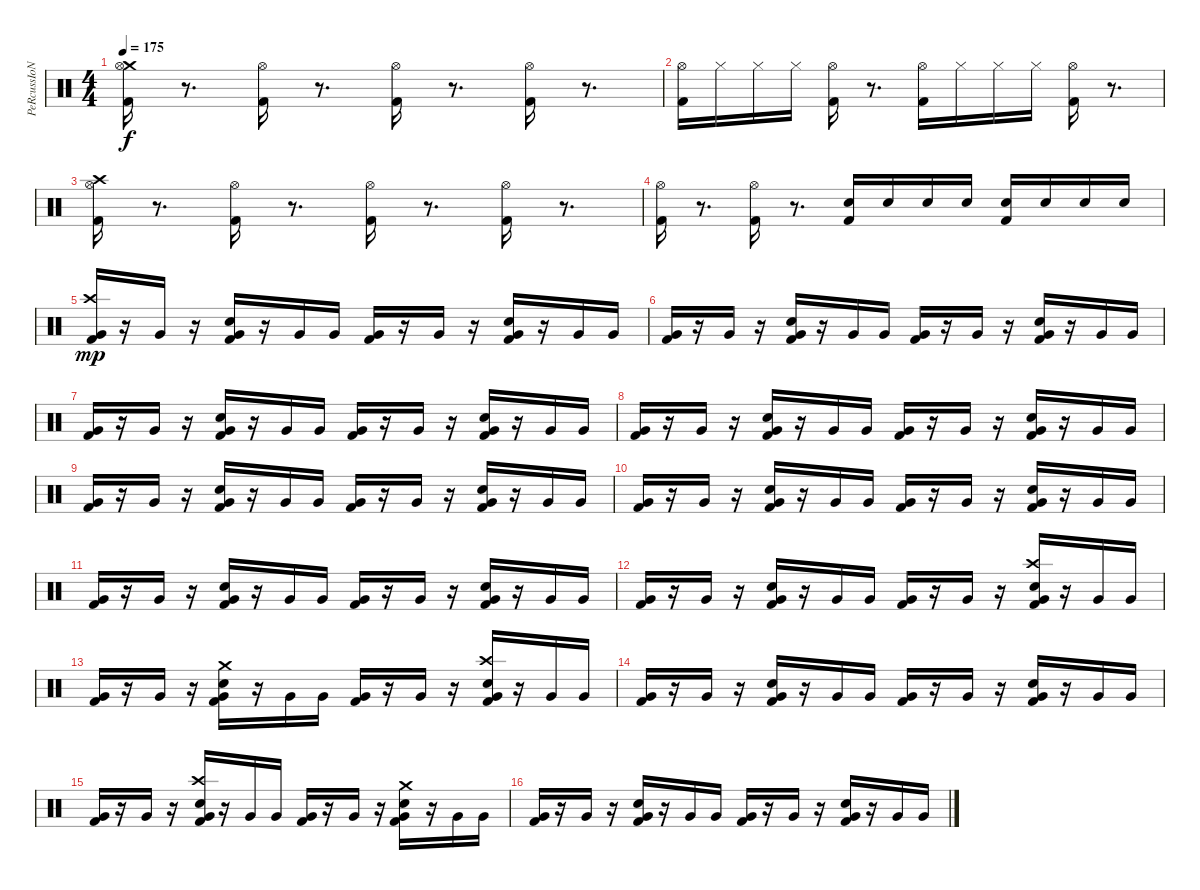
\track ("PeRcussIoNs" "PeRcussIoN") {instrument percussion}
\staff {score}
\articulation defaults
\ts (4 4)
\tempo 175
\clef neutral
\ks c
("Crash medium (hit)" "Kick (hit) 2" "Hi-Hat (open)").16{dy f} r.8{d} ("Kick (hit) 2" "Hi-Hat (open)").16 r.8{d} ("Kick (hit) 2" "Hi-Hat (open)").16 r.8{d} ("Kick (hit) 2" "Hi-Hat (open)").16 r.8{d} |
("Kick (hit) 2" "Hi-Hat (open)").16 "Hi-Hat (closed)".16 "Hi-Hat (closed)".16 "Hi-Hat (closed)".16 ("Kick (hit) 2" "Hi-Hat (open)").16 r.8{d} ("Hi-Hat (open)" "Kick (hit) 2").16 "Hi-Hat (closed)".16 "Hi-Hat (closed)".16 "Hi-Hat (closed)".16 ("Hi-Hat (open)" "Kick (hit) 2").16 r.8{d} |
("Crash high (hit)" "Kick (hit) 2" "Hi-Hat (open)").16 r.8{d} ("Kick (hit) 2" "Hi-Hat (open)").16 r.8{d} ("Kick (hit) 2" "Hi-Hat (open)").16 r.8{d} ("Kick (hit) 2" "Hi-Hat (open)").16 r.8{d} |
("Kick (hit) 2" "Hi-Hat (open)").16 r.8{d} ("Kick (hit) 2" "Hi-Hat (open)").16 r.8{d} ("Electric Snare (hit)" "Kick (hit) 2").16 "Electric Snare (hit)".16 "Electric Snare (hit)".16 "Electric Snare (hit)".16 ("Electric Snare (hit)" "Kick (hit) 2").16 "Electric Snare (hit)".16 "Electric Snare (hit)".16 "Electric Snare (hit)".16 |
("Crash high (hit)" "Very Low Tom (hit)" "Kick (hit) 2").16{dy mp} r.16 "Very Low Tom (hit)".16 r.16 ("Very Low Tom (hit)" "Electric Snare (hit)" "Kick (hit) 2").16 r.16 "Very Low Tom (hit)".16 "Very Low Tom (hit)".16 ("Very Low Tom (hit)" "Kick (hit) 2").16 r.16 "Very Low Tom (hit)".16 r.16 ("Very Low Tom (hit)" "Electric Snare (hit)" "Kick (hit) 2").16 r.16 "Very Low Tom (hit)".16 "Very Low Tom (hit)".16 |
("Very Low Tom (hit)" "Kick (hit) 2").16 r.16 "Very Low Tom (hit)".16 r.16 ("Very Low Tom (hit)" "Electric Snare (hit)" "Kick (hit) 2").16 r.16 "Very Low Tom (hit)".16 "Very Low Tom (hit)".16 ("Very Low Tom (hit)" "Kick (hit) 2").16 r.16 "Very Low Tom (hit)".16 r.16 ("Very Low Tom (hit)" "Electric Snare (hit)" "Kick (hit) 2").16 r.16 "Very Low Tom (hit)".16 "Very Low Tom (hit)".16 |
("Very Low Tom (hit)" "Kick (hit) 2").16 r.16 "Very Low Tom (hit)".16 r.16 ("Very Low Tom (hit)" "Electric Snare (hit)" "Kick (hit) 2").16 r.16 "Very Low Tom (hit)".16 "Very Low Tom (hit)".16 ("Very Low Tom (hit)" "Kick (hit) 2").16 r.16 "Very Low Tom (hit)".16 r.16 ("Very Low Tom (hit)" "Electric Snare (hit)" "Kick (hit) 2").16 r.16 "Very Low Tom (hit)".16 "Very Low Tom (hit)".16 |
("Very Low Tom (hit)" "Kick (hit) 2").16 r.16 "Very Low Tom (hit)".16 r.16 ("Very Low Tom (hit)" "Electric Snare (hit)" "Kick (hit) 2").16 r.16 "Very Low Tom (hit)".16 "Very Low Tom (hit)".16 ("Very Low Tom (hit)" "Kick (hit) 2").16 r.16 "Very Low Tom (hit)".16 r.16 ("Very Low Tom (hit)" "Electric Snare (hit)" "Kick (hit) 2").16 r.16 "Very Low Tom (hit)".16 "Very Low Tom (hit)".16 |
("Very Low Tom (hit)" "Kick (hit) 2").16 r.16 "Very Low Tom (hit)".16 r.16 ("Very Low Tom (hit)" "Electric Snare (hit)" "Kick (hit) 2").16 r.16 "Very Low Tom (hit)".16 "Very Low Tom (hit)".16 ("Very Low Tom (hit)" "Kick (hit) 2").16 r.16 "Very Low Tom (hit)".16 r.16 ("Very Low Tom (hit)" "Electric Snare (hit)" "Kick (hit) 2").16 r.16 "Very Low Tom (hit)".16 "Very Low Tom (hit)".16 |
("Very Low Tom (hit)" "Kick (hit) 2").16 r.16 "Very Low Tom (hit)".16 r.16 ("Very Low Tom (hit)" "Electric Snare (hit)" "Kick (hit) 2").16 r.16 "Very Low Tom (hit)".16 "Very Low Tom (hit)".16 ("Very Low Tom (hit)" "Kick (hit) 2").16 r.16 "Very Low Tom (hit)".16 r.16 ("Very Low Tom (hit)" "Electric Snare (hit)" "Kick (hit) 2").16 r.16 "Very Low Tom (hit)".16 "Very Low Tom (hit)".16 |
("Very Low Tom (hit)" "Kick (hit) 2").16 r.16 "Very Low Tom (hit)".16 r.16 ("Very Low Tom (hit)" "Electric Snare (hit)" "Kick (hit) 2").16 r.16 "Very Low Tom (hit)".16 "Very Low Tom (hit)".16 ("Very Low Tom (hit)" "Kick (hit) 2").16 r.16 "Very Low Tom (hit)".16 r.16 ("Very Low Tom (hit)" "Electric Snare (hit)" "Kick (hit) 2").16 r.16 "Very Low Tom (hit)".16 "Very Low Tom (hit)".16 |
("Very Low Tom (hit)" "Kick (hit) 2").16 r.16 "Very Low Tom (hit)".16 r.16 ("Very Low Tom (hit)" "Electric Snare (hit)" "Kick (hit) 2").16 r.16 "Very Low Tom (hit)".16 "Very Low Tom (hit)".16 ("Very Low Tom (hit)" "Kick (hit) 2").16 r.16 "Very Low Tom (hit)".16 r.16 ("Crash high (hit)" "Very Low Tom (hit)" "Electric Snare (hit)" "Kick (hit) 2").16 r.16 "Very Low Tom (hit)".16 "Very Low Tom (hit)".16 |
("Kick (hit) 2" "Very Low Tom (hit)").16 r.16 "Very Low Tom (hit)".16 r.16 ("Crash medium (hit)" "Electric Snare (hit)" "Kick (hit) 2" "Very Low Tom (hit)").16 r.16 "Very Low Tom (hit)".16 "Very Low Tom (hit)".16 ("Kick (hit) 2" "Very Low Tom (hit)").16 r.16 "Very Low Tom (hit)".16 r.16 ("Crash high (hit)" "Electric Snare (hit)" "Kick (hit) 2" "Very Low Tom (hit)").16 r.16 "Very Low Tom (hit)".16 "Very Low Tom (hit)".16 |
("Kick (hit) 2" "Very Low Tom (hit)").16 r.16 "Very Low Tom (hit)".16 r.16 ("Electric Snare (hit)" "Kick (hit) 2" "Very Low Tom (hit)").16 r.16 "Very Low Tom (hit)".16 "Very Low Tom (hit)".16 ("Kick (hit) 2" "Very Low Tom (hit)").16 r.16 "Very Low Tom (hit)".16 r.16 ("Electric Snare (hit)" "Kick (hit) 2" "Very Low Tom (hit)").16 r.16 "Very Low Tom (hit)".16 "Very Low Tom (hit)".16 |
("Kick (hit) 2" "Very Low Tom (hit)").16 r.16 "Very Low Tom (hit)".16 r.16 ("Crash high (hit)" "Electric Snare (hit)" "Kick (hit) 2" "Very Low Tom (hit)").16 r.16 "Very Low Tom (hit)".16 "Very Low Tom (hit)".16 ("Kick (hit) 2" "Very Low Tom (hit)").16 r.16 "Very Low Tom (hit)".16 r.16 ("Crash medium (hit)" "Electric Snare (hit)" "Kick (hit) 2" "Very Low Tom (hit)").16 r.16 "Very Low Tom (hit)".16 "Very Low Tom (hit)".16 |
("Kick (hit) 2" "Very Low Tom (hit)").16 r.16 "Very Low Tom (hit)".16 r.16 ("Electric Snare (hit)" "Kick (hit) 2" "Very Low Tom (hit)").16 r.16 "Very Low Tom (hit)".16 "Very Low Tom (hit)".16 ("Kick (hit) 2" "Very Low Tom (hit)").16 r.16 "Very Low Tom (hit)".16 r.16 ("Electric Snare (hit)" "Kick (hit) 2" "Very Low Tom (hit)").16 r.16 "Very Low Tom (hit)".16 "Very Low Tom (hit)".16
